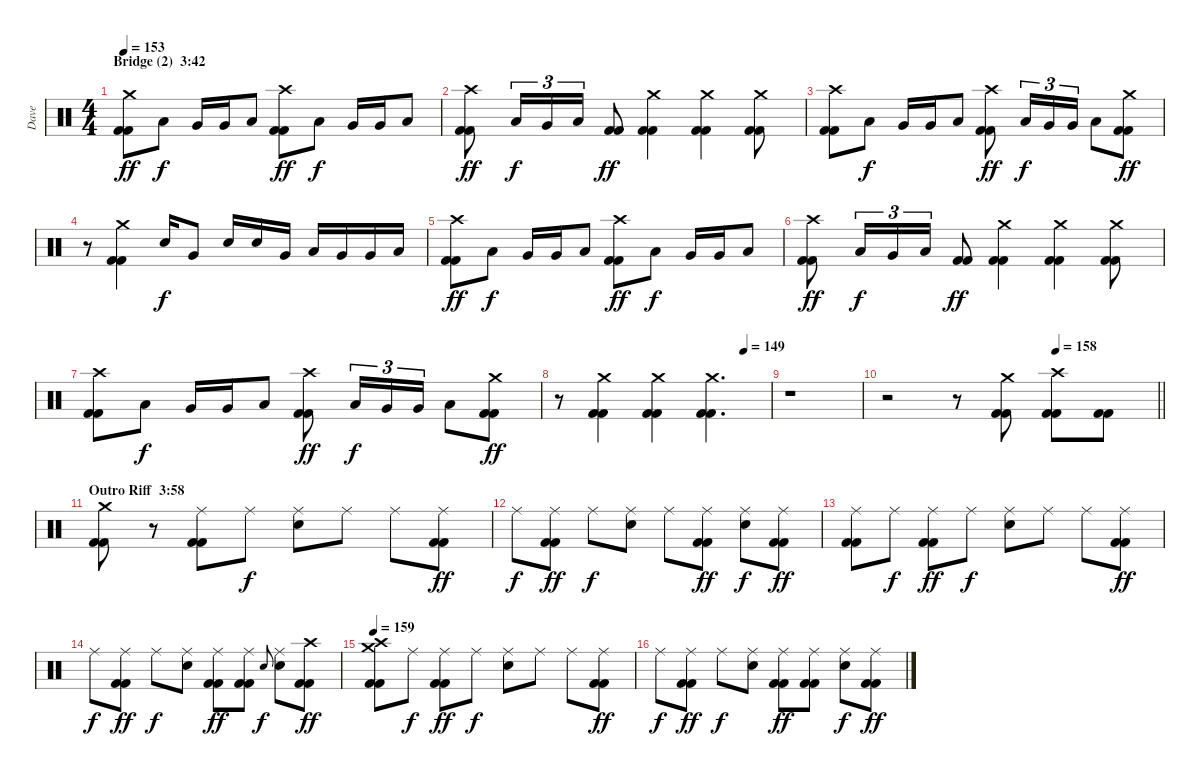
\track ("Dave" "Dave") {instrument percussion}
\staff {score}
\articulation defaults
\ts (4 4)
\section ("" "Bridge (2)  3:42")
\tempo 153
\clef neutral
\ks c
("Crash medium (hit)" "Kick (hit) 2" "Kick (hit) 2").8{dy ff} "Low Floor Tom (hit)".8{dy f} "Very Low Tom (hit)".16 "Very Low Tom (hit)".16 "Low Floor Tom (hit)".8 ("Crash high (hit)" "Kick (hit) 2" "Kick (hit) 2").8{dy ff} "Low Floor Tom (hit)".8{dy f} "Very Low Tom (hit)".16 "Very Low Tom (hit)".16 "Low Floor Tom (hit)".8 |
("Crash high (hit)" "Kick (hit) 2" "Kick (hit) 2").8{dy ff} "Low Floor Tom (hit)".16{tu (3 2) dy f} "Very Low Tom (hit)".16{tu (3 2)} "Low Floor Tom (hit)".16{tu (3 2)} ("Kick (hit) 2" "Kick (hit) 2").8{dy ff} ("Crash medium (hit)" "Kick (hit) 2" "Kick (hit) 2").4 ("Crash medium (hit)" "Kick (hit) 2" "Kick (hit) 2").4 ("Crash medium (hit)" "Kick (hit) 2" "Kick (hit) 2").8 |
("Crash high (hit)" "Kick (hit) 2" "Kick (hit) 2").8 "Low Floor Tom (hit)".8{dy f} "Very Low Tom (hit)".16 "Very Low Tom (hit)".16 "Low Floor Tom (hit)".8 ("Crash high (hit)" "Kick (hit) 2" "Kick (hit) 2").8{dy ff} "Low Floor Tom (hit)".16{tu (3 2) dy f} "Very Low Tom (hit)".16{tu (3 2)} "Very Low Tom (hit)".16{tu (3 2)} "Low Floor Tom (hit)".8 ("Crash medium (hit)" "Kick (hit) 2" "Kick (hit) 2").8{dy ff} |
r.8 ("Crash medium (hit)" "Kick (hit) 2" "Kick (hit) 2").4 "Electric Snare (hit)".16{dy f} "Very Low Tom (hit)".8 "Electric Snare (hit)".16 "Electric Snare (hit)".16 "Very Low Tom (hit)".16 "Low Tom (hit)".16 "Very Low Tom (hit)".16 "Very Low Tom (hit)".16 "Low Floor Tom (hit)".16 |
("Crash high (hit)" "Kick (hit) 2" "Kick (hit) 2").8{dy ff} "Low Floor Tom (hit)".8{dy f} "Very Low Tom (hit)".16 "Very Low Tom (hit)".16 "Low Floor Tom (hit)".8 ("Crash high (hit)" "Kick (hit) 2" "Kick (hit) 2").8{dy ff} "Low Floor Tom (hit)".8{dy f} "Very Low Tom (hit)".16 "Very Low Tom (hit)".16 "Low Floor Tom (hit)".8 |
("Crash high (hit)" "Kick (hit) 2" "Kick (hit) 2").8{dy ff} "Low Floor Tom (hit)".16{tu (3 2) dy f} "Very Low Tom (hit)".16{tu (3 2)} "Low Floor Tom (hit)".16{tu (3 2)} ("Kick (hit) 2" "Kick (hit) 2").8{dy ff} ("Crash medium (hit)" "Kick (hit) 2" "Kick (hit) 2").4 ("Crash medium (hit)" "Kick (hit) 2" "Kick (hit) 2").4 ("Crash medium (hit)" "Kick (hit) 2" "Kick (hit) 2").8 |
("Crash high (hit)" "Kick (hit) 2" "Kick (hit) 2").8 "Low Floor Tom (hit)".8{dy f} "Very Low Tom (hit)".16 "Very Low Tom (hit)".16 "Low Floor Tom (hit)".8 ("Crash high (hit)" "Kick (hit) 2" "Kick (hit) 2").8{dy ff} "Low Floor Tom (hit)".16{tu (3 2) dy f} "Very Low Tom (hit)".16{tu (3 2)} "Very Low Tom (hit)".16{tu (3 2)} "Low Floor Tom (hit)".8 ("Crash medium (hit)" "Kick (hit) 2" "Kick (hit) 2").8{dy ff} |
\tempo (149 0.875)
r.8 ("Crash medium (hit)" "Kick (hit) 2" "Kick (hit) 2").4 ("Crash medium (hit)" "Kick (hit) 2" "Kick (hit) 2").4 ("Crash medium (hit)" "Kick (hit) 2" "Kick (hit) 2").4{d} |
r.1 |
\tempo (158 0.625)
\barLineRight lightlight
r.2 r.8 ("Crash medium (hit)" "Kick (hit) 2" "Kick (hit) 2").8 ("Crash high (hit)" "Kick (hit) 2" "Kick (hit) 2").8 ("Kick (hit) 2" "Kick (hit) 2").8 |
\section ("" "Outro Riff  3:58")
("Crash medium (hit)" "Kick (hit) 2" "Kick (hit) 2").8{volume 16} r.8 ("Ride (middle)" "Kick (hit) 2" "Kick (hit) 2").8 "Ride (middle)".8{dy f} ("Ride (middle)" "Electric Snare (hit)").8 "Ride (middle)".8 "Ride (middle)".8 ("Ride (middle)" "Kick (hit) 2" "Kick (hit) 2").8{dy ff} |
"Ride (middle)".8{dy f} ("Ride (middle)" "Kick (hit) 2" "Kick (hit) 2").8{dy ff} "Ride (middle)".8{dy f} ("Ride (middle)" "Electric Snare (hit)").8 "Ride (middle)".8 ("Ride (middle)" "Kick (hit) 2" "Kick (hit) 2").8{dy ff} ("Ride (middle)" "Electric Snare (hit)").8{dy f} ("Ride (middle)" "Kick (hit) 2" "Kick (hit) 2").8{dy ff} |
("Ride (middle)" "Kick (hit) 2" "Kick (hit) 2").8 "Ride (middle)".8{dy f} ("Ride (middle)" "Kick (hit) 2" "Kick (hit) 2").8{dy ff} "Ride (middle)".8{dy f} ("Ride (middle)" "Electric Snare (hit)").8 "Ride (middle)".8 "Ride (middle)".8 ("Ride (middle)" "Kick (hit) 2" "Kick (hit) 2").8{dy ff} |
"Ride (middle)".8{dy f} ("Ride (middle)" "Kick (hit) 2" "Kick (hit) 2").8{dy ff} "Ride (middle)".8{dy f} ("Ride (middle)" "Electric Snare (hit)").8 ("Ride (middle)" "Kick (hit) 2" "Kick (hit) 2").8{dy ff} ("Ride (middle)" "Kick (hit) 2" "Kick (hit) 2").8 "Electric Snare (hit)".8{gr onbeat dy f} ("Ride (middle)" "Electric Snare (hit)").8 ("Crash high (hit)" "Kick (hit) 2" "Kick (hit) 2").8{dy ff} |
\tempo 159
("Crash medium (hit)" "Crash high (hit)" "Kick (hit) 2" "Kick (hit) 2").8 "Ride (middle)".8{dy f} ("Ride (middle)" "Kick (hit) 2" "Kick (hit) 2").8{dy ff} "Ride (middle)".8{dy f} ("Ride (middle)" "Electric Snare (hit)").8 "Ride (middle)".8 "Ride (middle)".8 ("Ride (middle)" "Kick (hit) 2" "Kick (hit) 2").8{dy ff} |
"Ride (middle)".8{dy f} ("Ride (middle)" "Kick (hit) 2" "Kick (hit) 2").8{dy ff} "Ride (middle)".8{dy f} ("Ride (middle)" "Electric Snare (hit)").8 ("Ride (middle)" "Kick (hit) 2" "Kick (hit) 2").8{dy ff} ("Ride (middle)" "Kick (hit) 2" "Kick (hit) 2").8 ("Ride (middle)" "Electric Snare (hit)").8{dy f} ("Ride (middle)" "Kick (hit) 2" "Kick (hit) 2").8{dy ff}
